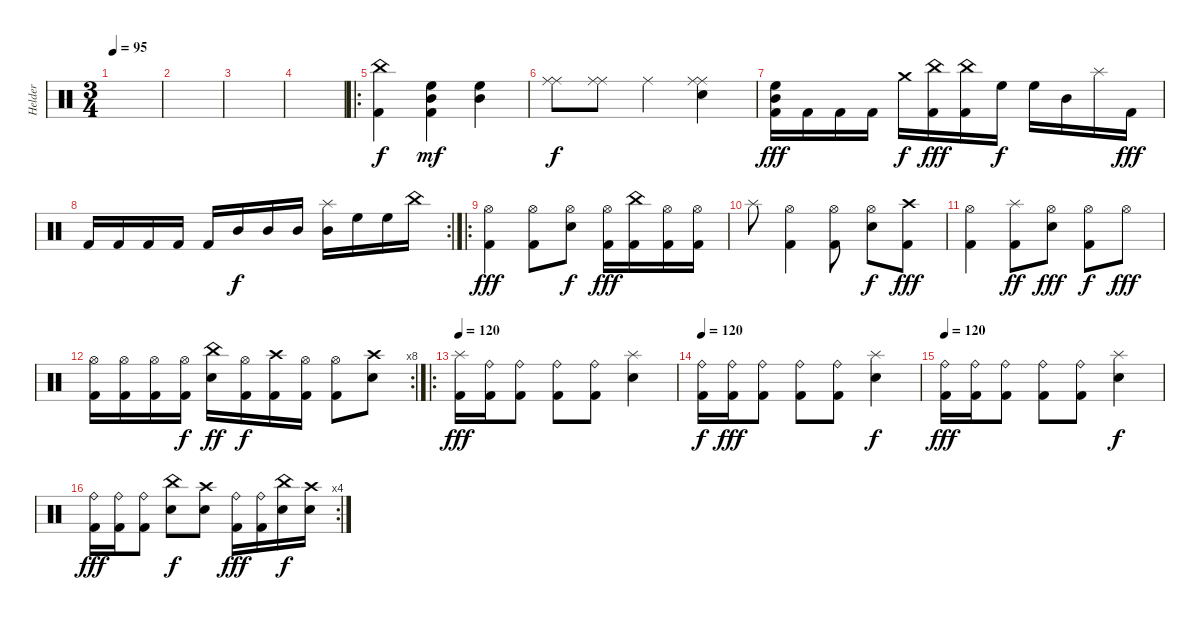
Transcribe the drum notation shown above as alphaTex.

\track ("Helder" "Helder") {instrument percussion}
\staff {score}
\articulation defaults
\ts (3 4)
\tempo 95
\clef neutral
\ks c
|
|
|
|
\ro
("China (hit)" "Kick (hit) 2").4 ("Kick (hit) 2" "Mid Tom (hit)" "High Floor Tom (hit)").4{dy mf} ("Mid Tom (hit)" "High Floor Tom (hit)").4 |
("Ride (middle)" "Ride (middle)").8{dy f} ("Ride (middle)" "Ride (middle)").8 "Ride (middle)".4 ("Ride (middle)" "Ride (middle)" "Snare (hit)").4 |
("Kick (hit) 2" "Mid Tom (hit)" "High Floor Tom (hit)").16{dy fff} "Kick (hit) 2".16 "Kick (hit) 2".16 "Kick (hit) 2".16 "Crash medium (hit)".16{dy f} ("China (hit)" "Kick (hit) 2").16{dy fff} ("China (hit)" "Kick (hit) 2").16 "High Floor Tom (hit)".16{dy f} "High Floor Tom (hit)".16 "Mid Tom (hit)".16 "Splash (hit)".16 "Kick (hit) 2".16{dy fff} |
\rc 2 "Kick (hit) 2".16 "Kick (hit) 2".16 "Kick (hit) 2".16 "Kick (hit) 2".16 "Kick (hit) 2".16 "Mid Tom (hit)".16{dy f} "Mid Tom (hit)".16 "Mid Tom (hit)".16
("Splash (hit)" "Mid Tom (hit)").16 "High Floor Tom (hit)".16 "High Floor Tom (hit)".16 "China (hit)".16 |
\ro
("Hi-Hat (open)" "Kick (hit) 2").4{dy fff} ("Hi-Hat (open)" "Kick (hit) 2").8 ("Hi-Hat (open)" "Snare (hit) 2").8{dy f} ("Hi-Hat (open)" "Kick (hit) 2").16{dy fff} ("China (hit)" "Kick (hit) 2").16 ("Hi-Hat (open)" "Kick (hit) 2").16 ("Hi-Hat (open)" "Kick (hit) 2").16 |
"Splash (hit)".8 ("Hi-Hat (open)" "Kick (hit) 2").4 ("Hi-Hat (open)" "Kick (hit) 2").8 ("Hi-Hat (open)" "Snare (hit) 2").8{dy f} ("Crash high (hit)" "Kick (hit) 2").8{dy fff} |
("Hi-Hat (open)" "Kick (hit) 2").4 ("Splash (hit)" "Kick (hit) 2").8{dy ff} ("Hi-Hat (open)" "Snare (hit) 2").8{dy fff} ("Hi-Hat (open)" "Kick (hit) 2").8{dy f} "Hi-Hat (open)".8{dy fff} |
\rc 8
("Hi-Hat (open)" "Kick (hit) 2").16 ("Hi-Hat (open)" "Kick (hit) 2").16 ("Hi-Hat (open)" "Kick (hit) 2").16 ("Hi-Hat (open)" "Kick (hit) 2").16{dy f} ("China (hit)" "Snare (hit) 2").16{dy ff} ("Hi-Hat (open)" "Kick (hit) 2").16{dy f} ("Crash high (hit)" "Kick (hit) 2").16 ("Hi-Hat (open)" "Kick (hit) 2").16 ("Hi-Hat (open)" "Kick (hit) 2").8 ("Crash high (hit)" "Snare (hit) 2").8 |
\ro
\tempo 120
("Kick (hit) 2" "Splash (hit)").16{dy fff} ("Kick (hit) 2" "Ride (bell)").16 ("Kick (hit) 2" "Ride (bell)").8 ("Kick (hit) 2" "Ride (bell)").8 ("Kick (hit) 2" "Ride (bell)").8 ("Snare (hit) 2" "Splash (hit)").4 |
\tempo 120
("Kick (hit) 2" "Ride (bell)").16{dy f} ("Kick (hit) 2" "Ride (bell)").16{dy fff} ("Kick (hit) 2" "Ride (bell)").8 ("Kick (hit) 2" "Ride (bell)").8 ("Kick (hit) 2" "Ride (bell)").8 ("Snare (hit) 2" "Splash (hit)").4{dy f} |
\tempo 120
("Kick (hit) 2" "Ride (bell)").16{dy fff} ("Kick (hit) 2" "Ride (bell)").16 ("Kick (hit) 2" "Ride (bell)").8 ("Kick (hit) 2" "Ride (bell)").8 ("Kick (hit) 2" "Ride (bell)").8 ("Snare (hit) 2" "Splash (hit)").4{dy f} |
\rc 4
("Kick (hit) 2" "Ride (bell)").16{dy fff} ("Kick (hit) 2" "Ride (bell)").16 ("Kick (hit) 2" "Ride (bell)").8 ("Snare (hit) 2" "China (hit)").8{dy f} ("Snare (hit) 2" "Crash high (hit)").8 ("Kick (hit) 2" "Ride (bell)").16{dy fff} ("Kick (hit) 2" "Ride (bell)").16 ("Snare (hit) 2" "China (hit)").16{dy f} ("Snare (hit) 2" "Crash high (hit)").16
